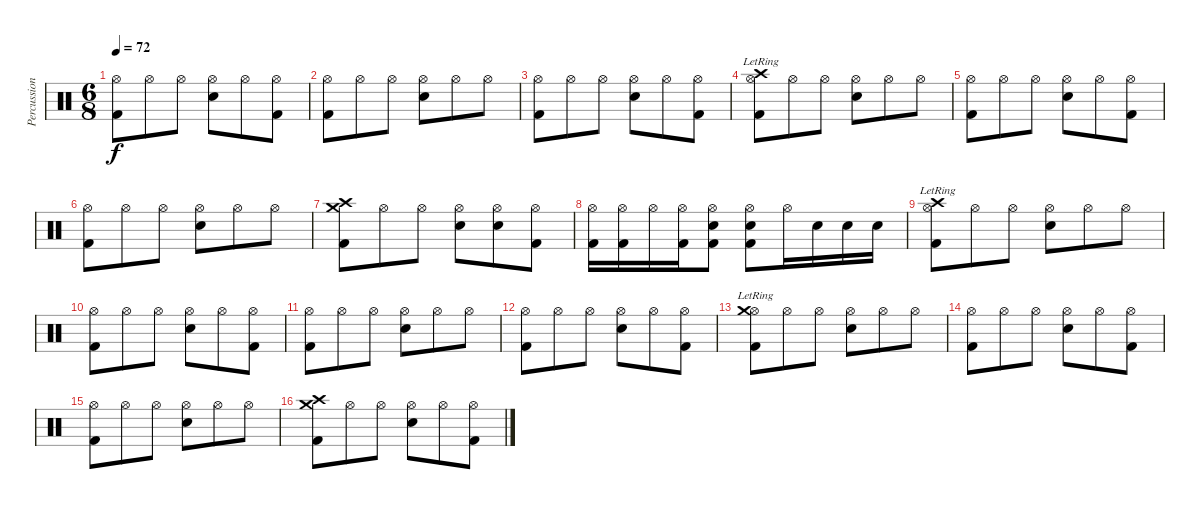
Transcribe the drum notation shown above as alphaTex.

\track ("Percussioni" "Percussion") {instrument percussion}
\staff {score}
\articulation defaults
\ts (6 8)
\tempo 72
\clef neutral
\ks c
("Hi-Hat (open)" "Kick (hit) 2").8{dy f} "Hi-Hat (open)".8 "Hi-Hat (open)".8 ("Hi-Hat (open)" "Electric Snare (hit)").8 "Hi-Hat (open)".8 ("Hi-Hat (open)" "Kick (hit) 2").8 |
("Hi-Hat (open)" "Kick (hit) 2").8 "Hi-Hat (open)".8 "Hi-Hat (open)".8 ("Hi-Hat (open)" "Electric Snare (hit)").8 "Hi-Hat (open)".8 "Hi-Hat (open)".8 |
("Hi-Hat (open)" "Kick (hit) 2").8 "Hi-Hat (open)".8 "Hi-Hat (open)".8 ("Hi-Hat (open)" "Electric Snare (hit)").8 "Hi-Hat (open)".8 ("Hi-Hat (open)" "Kick (hit) 2").8 |
("Hi-Hat (open)" "Crash high (hit)"{lr} "Kick (hit) 2").8 "Hi-Hat (open)".8 "Hi-Hat (open)".8 ("Hi-Hat (open)" "Electric Snare (hit)").8 "Hi-Hat (open)".8 "Hi-Hat (open)".8 |
("Hi-Hat (open)" "Kick (hit) 2").8 "Hi-Hat (open)".8 "Hi-Hat (open)".8 ("Hi-Hat (open)" "Electric Snare (hit)").8 "Hi-Hat (open)".8 ("Hi-Hat (open)" "Kick (hit) 2").8 |
("Hi-Hat (open)" "Kick (hit) 2").8 "Hi-Hat (open)".8 "Hi-Hat (open)".8 ("Hi-Hat (open)" "Electric Snare (hit)").8 "Hi-Hat (open)".8 "Hi-Hat (open)".8 |
("Crash high (hit)" "Crash medium (hit)" "Kick (hit) 2").8 "Hi-Hat (open)".8 "Hi-Hat (open)".8 ("Hi-Hat (open)" "Electric Snare (hit)").8 ("Hi-Hat (open)" "Electric Snare (hit)").8 ("Hi-Hat (open)" "Kick (hit) 2").8 |
("Hi-Hat (open)" "Kick (hit) 2").16 ("Hi-Hat (open)" "Kick (hit) 2").16 "Hi-Hat (open)".16 ("Hi-Hat (open)" "Kick (hit) 2").16 ("Hi-Hat (open)" "Electric Snare (hit)" "Kick (hit) 2").8 ("Hi-Hat (open)" "Electric Snare (hit)" "Kick (hit) 2").8 "Hi-Hat (open)".16 "Electric Snare (hit)".16 "Electric Snare (hit)".16 "Electric Snare (hit)".16 |
("Hi-Hat (open)" "Crash high (hit)"{lr} "Kick (hit) 2").8 "Hi-Hat (open)".8 "Hi-Hat (open)".8 ("Hi-Hat (open)" "Electric Snare (hit)").8 "Hi-Hat (open)".8 "Hi-Hat (open)".8 |
("Hi-Hat (open)" "Kick (hit) 2").8 "Hi-Hat (open)".8 "Hi-Hat (open)".8 ("Hi-Hat (open)" "Electric Snare (hit)").8 "Hi-Hat (open)".8 ("Hi-Hat (open)" "Kick (hit) 2").8 |
("Hi-Hat (open)" "Kick (hit) 2").8 "Hi-Hat (open)".8 "Hi-Hat (open)".8 ("Hi-Hat (open)" "Electric Snare (hit)").8 "Hi-Hat (open)".8 "Hi-Hat (open)".8 |
("Hi-Hat (open)" "Kick (hit) 2").8 "Hi-Hat (open)".8 "Hi-Hat (open)".8 ("Hi-Hat (open)" "Electric Snare (hit)").8 "Hi-Hat (open)".8 ("Hi-Hat (open)" "Kick (hit) 2").8 |
("Hi-Hat (open)" "Crash medium (hit)"{lr} "Kick (hit) 2").8 "Hi-Hat (open)".8 "Hi-Hat (open)".8 ("Hi-Hat (open)" "Electric Snare (hit)").8 "Hi-Hat (open)".8 "Hi-Hat (open)".8 |
("Hi-Hat (open)" "Kick (hit) 2").8 "Hi-Hat (open)".8 "Hi-Hat (open)".8 ("Hi-Hat (open)" "Electric Snare (hit)").8 "Hi-Hat (open)".8 ("Hi-Hat (open)" "Kick (hit) 2").8 |
("Hi-Hat (open)" "Kick (hit) 2").8 "Hi-Hat (open)".8 "Hi-Hat (open)".8 ("Hi-Hat (open)" "Electric Snare (hit)").8 "Hi-Hat (open)".8 "Hi-Hat (open)".8 |
("Crash high (hit)" "Crash medium (hit)" "Kick (hit) 2").8 "Hi-Hat (open)".8 "Hi-Hat (open)".8 ("Hi-Hat (open)" "Electric Snare (hit)").8 "Hi-Hat (open)".8 ("Hi-Hat (open)" "Kick (hit) 2").8
